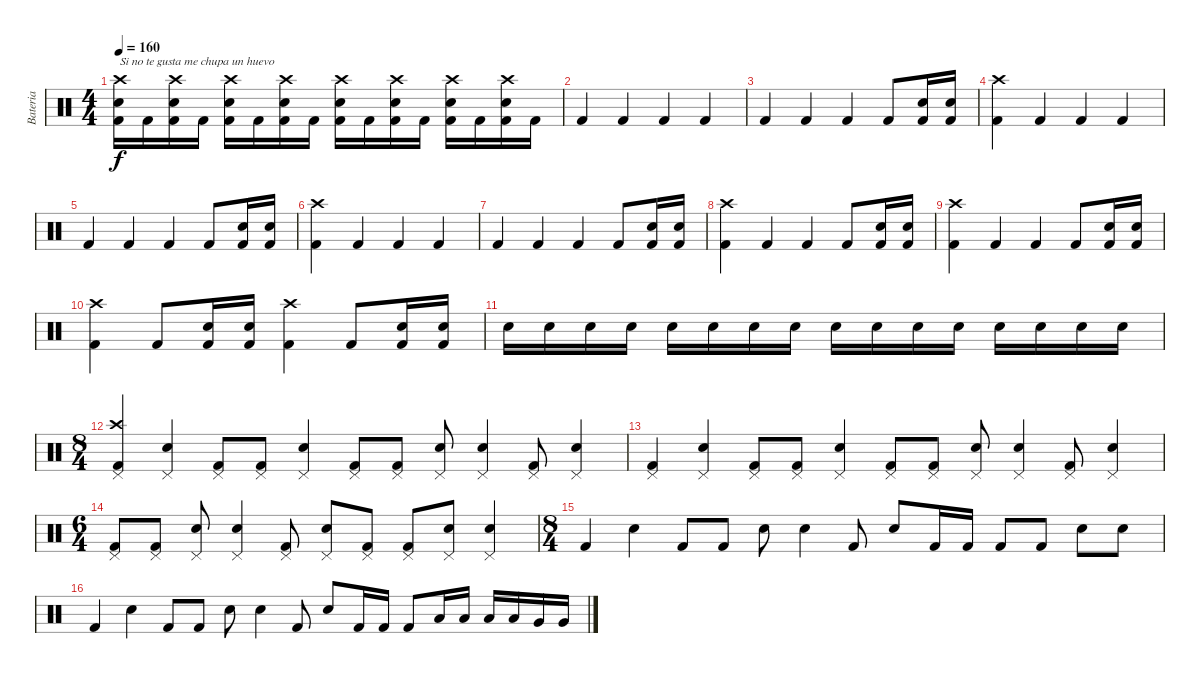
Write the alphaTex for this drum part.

\track ("Bateria" "Bateria") {instrument percussion}
\staff {score}
\articulation defaults
\ts (4 4)
\tempo 160
\clef neutral
\ks c
("Kick (hit) 2" "Electric Snare (hit)" "Crash high (hit)").16{txt "Si no te gusta me chupa un huevo" dy f} "Kick (hit) 2".16 ("Kick (hit) 2" "Electric Snare (hit)" "Crash high (hit)").16 "Kick (hit) 2".16 ("Kick (hit) 2" "Electric Snare (hit)" "Crash high (hit)").16 "Kick (hit) 2".16 ("Kick (hit) 2" "Electric Snare (hit)" "Crash high (hit)").16 "Kick (hit) 2".16 ("Kick (hit) 2" "Electric Snare (hit)" "Crash high (hit)").16 "Kick (hit) 2".16 ("Kick (hit) 2" "Electric Snare (hit)" "Crash high (hit)").16 "Kick (hit) 2".16 ("Kick (hit) 2" "Electric Snare (hit)" "Crash high (hit)").16 "Kick (hit) 2".16 ("Kick (hit) 2" "Electric Snare (hit)" "Crash high (hit)").16 "Kick (hit) 2".16 |
"Kick (hit) 2".4 "Kick (hit) 2".4 "Kick (hit) 2".4 "Kick (hit) 2".4 |
"Kick (hit) 2".4 "Kick (hit) 2".4 "Kick (hit) 2".4 "Kick (hit) 2".8 ("Kick (hit) 2" "Snare (hit) 2").16 ("Kick (hit) 2" "Snare (hit) 2").16 |
("Kick (hit) 2" "Crash high (hit)").4 "Kick (hit) 2".4 "Kick (hit) 2".4 "Kick (hit) 2".4 |
"Kick (hit) 2".4 "Kick (hit) 2".4 "Kick (hit) 2".4 "Kick (hit) 2".8 ("Kick (hit) 2" "Snare (hit) 2").16 ("Kick (hit) 2" "Snare (hit) 2").16 |
("Kick (hit) 2" "Crash high (hit)").4 "Kick (hit) 2".4 "Kick (hit) 2".4 "Kick (hit) 2".4 |
"Kick (hit) 2".4 "Kick (hit) 2".4 "Kick (hit) 2".4 "Kick (hit) 2".8 ("Kick (hit) 2" "Snare (hit) 2").16 ("Kick (hit) 2" "Snare (hit) 2").16 |
("Kick (hit) 2" "Crash high (hit)").4 "Kick (hit) 2".4 "Kick (hit) 2".4 "Kick (hit) 2".8 ("Kick (hit) 2" "Snare (hit) 2").16 ("Kick (hit) 2" "Snare (hit) 2").16 |
("Kick (hit) 2" "Crash high (hit)").4 "Kick (hit) 2".4 "Kick (hit) 2".4 "Kick (hit) 2".8 ("Kick (hit) 2" "Snare (hit) 2").16 ("Kick (hit) 2" "Snare (hit) 2").16 |
("Kick (hit) 2" "Crash high (hit)").4 "Kick (hit) 2".8 ("Kick (hit) 2" "Snare (hit) 2").16 ("Kick (hit) 2" "Snare (hit) 2").16 ("Kick (hit) 2" "Crash high (hit)").4 "Kick (hit) 2".8 ("Kick (hit) 2" "Snare (hit) 2").16 ("Kick (hit) 2" "Snare (hit) 2").16 |
"Snare (hit) 2".16 "Snare (hit) 2".16 "Snare (hit) 2".16 "Snare (hit) 2".16 "Snare (hit) 2".16 "Snare (hit) 2".16 "Snare (hit) 2".16 "Snare (hit) 2".16 "Snare (hit) 2".16 "Snare (hit) 2".16 "Snare (hit) 2".16 "Snare (hit) 2".16 "Snare (hit) 2".16 "Snare (hit) 2".16 "Snare (hit) 2".16 "Snare (hit) 2".16 |
\ts (8 4)
("Crash high (hit)" "Pedal Hi-Hat (hit)" "Kick (hit) 2").4 ("Pedal Hi-Hat (hit)" "Snare (hit) 2").4 ("Pedal Hi-Hat (hit)" "Kick (hit) 2").8 ("Pedal Hi-Hat (hit)" "Kick (hit) 2").8 ("Pedal Hi-Hat (hit)" "Snare (hit) 2").4 ("Pedal Hi-Hat (hit)" "Kick (hit) 2").8 ("Pedal Hi-Hat (hit)" "Kick (hit) 2").8 ("Pedal Hi-Hat (hit)" "Snare (hit) 2").8 ("Pedal Hi-Hat (hit)" "Snare (hit) 2").4 ("Pedal Hi-Hat (hit)" "Kick (hit) 2").8 ("Pedal Hi-Hat (hit)" "Snare (hit) 2").4 |
("Pedal Hi-Hat (hit)" "Kick (hit) 2").4 ("Pedal Hi-Hat (hit)" "Snare (hit) 2").4 ("Pedal Hi-Hat (hit)" "Kick (hit) 2").8 ("Pedal Hi-Hat (hit)" "Kick (hit) 2").8 ("Pedal Hi-Hat (hit)" "Snare (hit) 2").4 ("Pedal Hi-Hat (hit)" "Kick (hit) 2").8 ("Pedal Hi-Hat (hit)" "Kick (hit) 2").8 ("Pedal Hi-Hat (hit)" "Snare (hit) 2").8 ("Pedal Hi-Hat (hit)" "Snare (hit) 2").4 ("Pedal Hi-Hat (hit)" "Kick (hit) 2").8 ("Pedal Hi-Hat (hit)" "Snare (hit) 2").4 |
\ts (6 4)
("Pedal Hi-Hat (hit)" "Kick (hit) 2").8 ("Pedal Hi-Hat (hit)" "Kick (hit) 2").8 ("Pedal Hi-Hat (hit)" "Snare (hit) 2").8 ("Pedal Hi-Hat (hit)" "Snare (hit) 2").4 ("Pedal Hi-Hat (hit)" "Kick (hit) 2").8 ("Pedal Hi-Hat (hit)" "Snare (hit) 2").8 ("Pedal Hi-Hat (hit)" "Kick (hit) 2").8 ("Pedal Hi-Hat (hit)" "Kick (hit) 2").8 ("Pedal Hi-Hat (hit)" "Snare (hit) 2").8 ("Pedal Hi-Hat (hit)" "Snare (hit) 2").4 |
\ts (8 4)
"Kick (hit) 2".4 "Snare (hit) 2".4 "Kick (hit) 2".8 "Kick (hit) 2".8 "Snare (hit) 2".8 "Snare (hit) 2".4 "Kick (hit) 2".8 "Snare (hit) 2".8 "Kick (hit) 2".16 "Kick (hit) 2".16 "Kick (hit) 2".8 "Kick (hit) 2".8 "Snare (hit) 2".8 "Snare (hit) 2".8 |
"Kick (hit) 2".4 "Snare (hit) 2".4 "Kick (hit) 2".8 "Kick (hit) 2".8 "Snare (hit) 2".8 "Snare (hit) 2".4 "Kick (hit) 2".8 "Snare (hit) 2".8 "Kick (hit) 2".16 "Kick (hit) 2".16 "Kick (hit) 2".8 "Low Tom (hit)".16 "Low Tom (hit)".16 "Low Tom (hit)".16 "Low Tom (hit)".16 "Very Low Tom (hit)".16 "Very Low Tom (hit)".16
